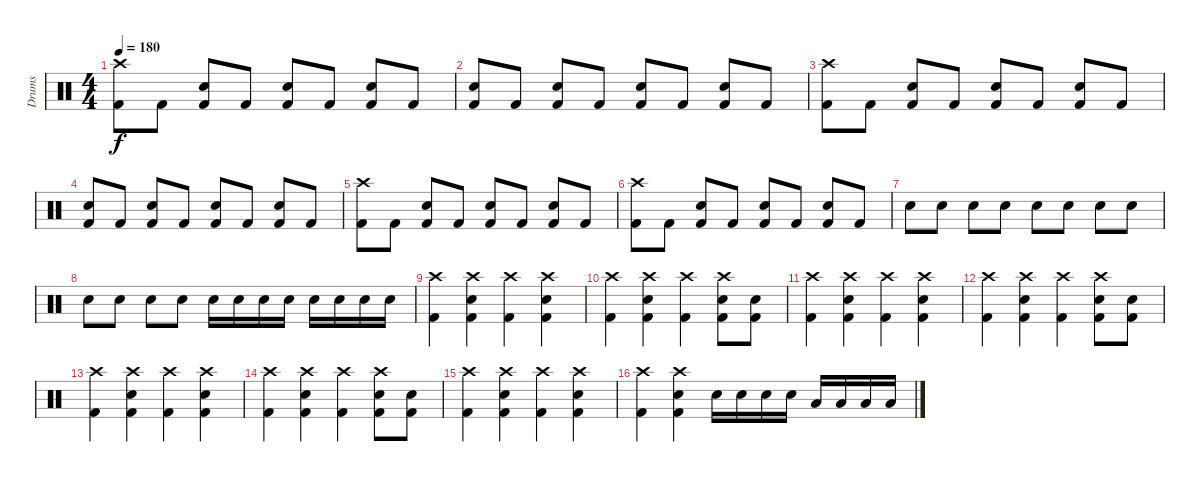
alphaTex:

\track ("Drums" "Drums") {instrument percussion}
\staff {score}
\articulation defaults
\ts (4 4)
\tempo 180
\clef neutral
\ks c
("Crash high (hit)" "Kick (hit) 2").8{dy f} "Kick (hit) 2".8 ("Snare (hit) 2" "Kick (hit) 2").8 "Kick (hit) 2".8 ("Snare (hit) 2" "Kick (hit) 2").8 "Kick (hit) 2".8 ("Snare (hit) 2" "Kick (hit) 2").8 "Kick (hit) 2".8 |
("Snare (hit) 2" "Kick (hit) 2").8 "Kick (hit) 2".8 ("Snare (hit) 2" "Kick (hit) 2").8 "Kick (hit) 2".8 ("Snare (hit) 2" "Kick (hit) 2").8 "Kick (hit) 2".8 ("Snare (hit) 2" "Kick (hit) 2").8 "Kick (hit) 2".8 |
("Crash high (hit)" "Kick (hit) 2").8 "Kick (hit) 2".8 ("Snare (hit) 2" "Kick (hit) 2").8 "Kick (hit) 2".8 ("Snare (hit) 2" "Kick (hit) 2").8 "Kick (hit) 2".8 ("Snare (hit) 2" "Kick (hit) 2").8 "Kick (hit) 2".8 |
("Snare (hit) 2" "Kick (hit) 2").8 "Kick (hit) 2".8 ("Snare (hit) 2" "Kick (hit) 2").8 "Kick (hit) 2".8 ("Snare (hit) 2" "Kick (hit) 2").8 "Kick (hit) 2".8 ("Snare (hit) 2" "Kick (hit) 2").8 "Kick (hit) 2".8 |
("Crash high (hit)" "Kick (hit) 2").8 "Kick (hit) 2".8 ("Snare (hit) 2" "Kick (hit) 2").8 "Kick (hit) 2".8 ("Snare (hit) 2" "Kick (hit) 2").8 "Kick (hit) 2".8 ("Snare (hit) 2" "Kick (hit) 2").8 "Kick (hit) 2".8 |
("Crash high (hit)" "Kick (hit) 2").8 "Kick (hit) 2".8 ("Snare (hit) 2" "Kick (hit) 2").8 "Kick (hit) 2".8 ("Snare (hit) 2" "Kick (hit) 2").8 "Kick (hit) 2".8 ("Snare (hit) 2" "Kick (hit) 2").8 "Kick (hit) 2".8 |
"Snare (hit) 2".8 "Snare (hit) 2".8 "Snare (hit) 2".8 "Snare (hit) 2".8 "Snare (hit) 2".8 "Snare (hit) 2".8 "Snare (hit) 2".8 "Snare (hit) 2".8 |
"Snare (hit) 2".8 "Snare (hit) 2".8 "Snare (hit) 2".8 "Snare (hit) 2".8 "Snare (hit) 2".16 "Snare (hit) 2".16 "Snare (hit) 2".16 "Snare (hit) 2".16 "Snare (hit) 2".16 "Snare (hit) 2".16 "Snare (hit) 2".16 "Snare (hit) 2".16 |
("Crash high (hit)" "Kick (hit) 2").4 ("Crash high (hit)" "Snare (hit) 2" "Kick (hit) 2").4 ("Crash high (hit)" "Kick (hit) 2").4 ("Crash high (hit)" "Snare (hit) 2" "Kick (hit) 2").4 |
("Crash high (hit)" "Kick (hit) 2").4 ("Crash high (hit)" "Snare (hit) 2" "Kick (hit) 2").4 ("Crash high (hit)" "Kick (hit) 2").4 ("Crash high (hit)" "Snare (hit) 2" "Kick (hit) 2").8 ("Snare (hit) 2" "Kick (hit) 2").8 |
("Crash high (hit)" "Kick (hit) 2").4 ("Crash high (hit)" "Snare (hit) 2" "Kick (hit) 2").4 ("Crash high (hit)" "Kick (hit) 2").4 ("Crash high (hit)" "Snare (hit) 2" "Kick (hit) 2").4 |
("Crash high (hit)" "Kick (hit) 2").4 ("Crash high (hit)" "Snare (hit) 2" "Kick (hit) 2").4 ("Crash high (hit)" "Kick (hit) 2").4 ("Crash high (hit)" "Snare (hit) 2" "Kick (hit) 2").8 ("Snare (hit) 2" "Kick (hit) 2").8 |
("Crash high (hit)" "Kick (hit) 2").4 ("Crash high (hit)" "Snare (hit) 2" "Kick (hit) 2").4 ("Crash high (hit)" "Kick (hit) 2").4 ("Crash high (hit)" "Snare (hit) 2" "Kick (hit) 2").4 |
("Crash high (hit)" "Kick (hit) 2").4 ("Crash high (hit)" "Snare (hit) 2" "Kick (hit) 2").4 ("Crash high (hit)" "Kick (hit) 2").4 ("Crash high (hit)" "Snare (hit) 2" "Kick (hit) 2").8 ("Snare (hit) 2" "Kick (hit) 2").8 |
("Crash high (hit)" "Kick (hit) 2").4 ("Crash high (hit)" "Snare (hit) 2" "Kick (hit) 2").4 ("Crash high (hit)" "Kick (hit) 2").4 ("Crash high (hit)" "Snare (hit) 2" "Kick (hit) 2").4 |
("Crash high (hit)" "Kick (hit) 2").4 ("Crash high (hit)" "Snare (hit) 2" "Kick (hit) 2").4 "Snare (hit) 2".16 "Snare (hit) 2".16 "Snare (hit) 2".16 "Snare (hit) 2".16 "Low Floor Tom (hit)".16 "Low Floor Tom (hit)".16 "Low Floor Tom (hit)".16 "Low Floor Tom (hit)".16
